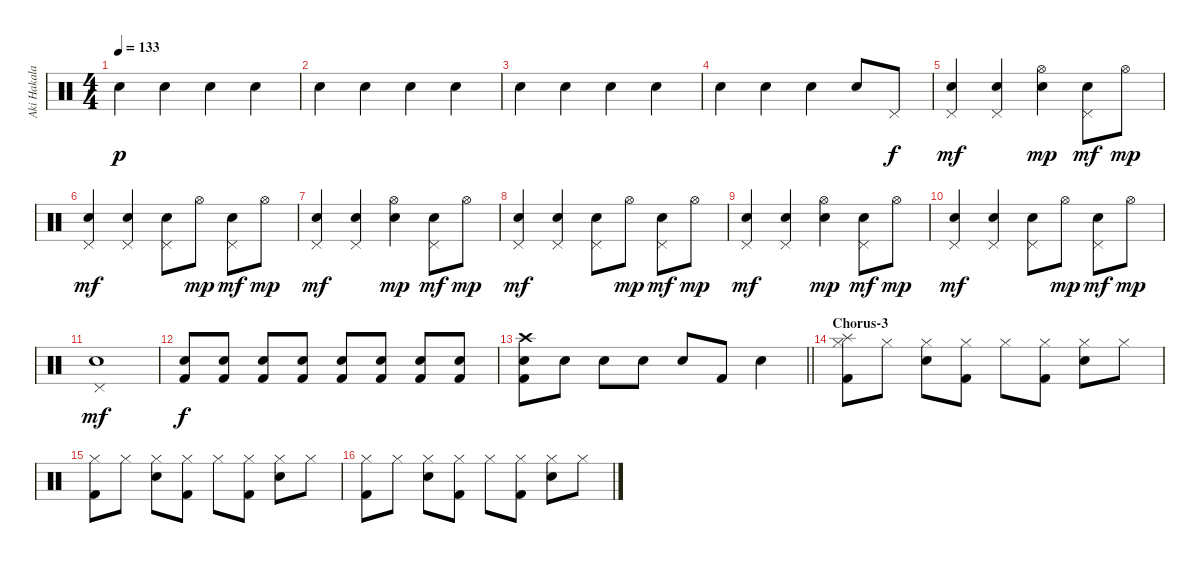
\track ("Aki Hakala - Drums" "Aki Hakala") {instrument percussion}
\staff {score}
\articulation defaults
\ts (4 4)
\tempo 133
\clef neutral
\ks c "Snare (hit) 2".4{dy p} "Snare (hit) 2".4 "Snare (hit) 2".4 "Snare (hit) 2".4
|
"Snare (hit) 2".4 "Snare (hit) 2".4 "Snare (hit) 2".4 "Snare (hit) 2".4 |
"Snare (hit) 2".4 "Snare (hit) 2".4 "Snare (hit) 2".4 "Snare (hit) 2".4 |
"Snare (hit) 2".4 "Snare (hit) 2".4 "Snare (hit) 2".4 "Snare (hit) 2".8 "Pedal Hi-Hat (hit)".8{dy f} |
("Snare (hit) 2" "Pedal Hi-Hat (hit)").4{dy mf} ("Snare (hit) 2" "Pedal Hi-Hat (hit)").4 ("Snare (hit) 2" "Hi-Hat (open)").4{dy mp} ("Snare (hit) 2" "Pedal Hi-Hat (hit)").8{dy mf} "Hi-Hat (open)".8{dy mp} |
("Snare (hit) 2" "Pedal Hi-Hat (hit)").4{dy mf} ("Snare (hit) 2" "Pedal Hi-Hat (hit)").4 ("Snare (hit) 2" "Pedal Hi-Hat (hit)").8 "Hi-Hat (open)".8{dy mp} ("Snare (hit) 2" "Pedal Hi-Hat (hit)").8{dy mf} "Hi-Hat (open)".8{dy mp} |
("Snare (hit) 2" "Pedal Hi-Hat (hit)").4{dy mf} ("Snare (hit) 2" "Pedal Hi-Hat (hit)").4 ("Snare (hit) 2" "Hi-Hat (open)").4{dy mp} ("Snare (hit) 2" "Pedal Hi-Hat (hit)").8{dy mf} "Hi-Hat (open)".8{dy mp} |
("Snare (hit) 2" "Pedal Hi-Hat (hit)").4{dy mf} ("Snare (hit) 2" "Pedal Hi-Hat (hit)").4 ("Snare (hit) 2" "Pedal Hi-Hat (hit)").8 "Hi-Hat (open)".8{dy mp} ("Snare (hit) 2" "Pedal Hi-Hat (hit)").8{dy mf} "Hi-Hat (open)".8{dy mp} |
("Snare (hit) 2" "Pedal Hi-Hat (hit)").4{dy mf} ("Snare (hit) 2" "Pedal Hi-Hat (hit)").4 ("Snare (hit) 2" "Hi-Hat (open)").4{dy mp} ("Snare (hit) 2" "Pedal Hi-Hat (hit)").8{dy mf} "Hi-Hat (open)".8{dy mp} |
("Snare (hit) 2" "Pedal Hi-Hat (hit)").4{dy mf} ("Snare (hit) 2" "Pedal Hi-Hat (hit)").4 ("Snare (hit) 2" "Pedal Hi-Hat (hit)").8 "Hi-Hat (open)".8{dy mp} ("Snare (hit) 2" "Pedal Hi-Hat (hit)").8{dy mf} "Hi-Hat (open)".8{dy mp} |
("Snare (hit) 2" "Pedal Hi-Hat (hit)").1{dy mf} |
("Electric Snare (hit)" "Kick (hit) 2").8{dy f} ("Electric Snare (hit)" "Kick (hit) 2").8 ("Electric Snare (hit)" "Kick (hit) 2").8 ("Electric Snare (hit)" "Kick (hit) 2").8 ("Electric Snare (hit)" "Kick (hit) 2").8 ("Electric Snare (hit)" "Kick (hit) 2").8 ("Electric Snare (hit)" "Kick (hit) 2").8 ("Electric Snare (hit)" "Kick (hit) 2").8 |
\barLineRight lightlight
("Crash high (hit)" "Snare (hit) 2" "Kick (hit) 2").8 "Electric Snare (hit)".8 "Electric Snare (hit)".8 "Electric Snare (hit)".8 "Electric Snare (hit)".8 "Kick (hit) 2".8 "Snare (hit) 2".4 |
\section ("" "Chorus-3")
("Splash (hit)" "Hi-Hat (closed)" "Kick (hit) 2").8 "Hi-Hat (closed)".8 ("Snare (hit) 2" "Hi-Hat (closed)").8 ("Hi-Hat (closed)" "Kick (hit) 2").8 "Hi-Hat (closed)".8 ("Hi-Hat (closed)" "Kick (hit) 2").8 ("Snare (hit) 2" "Hi-Hat (closed)").8 "Hi-Hat (closed)".8 |
("Hi-Hat (closed)" "Kick (hit) 2").8 "Hi-Hat (closed)".8 ("Snare (hit) 2" "Hi-Hat (closed)").8 ("Hi-Hat (closed)" "Kick (hit) 2").8 "Hi-Hat (closed)".8 ("Hi-Hat (closed)" "Kick (hit) 2").8 ("Snare (hit) 2" "Hi-Hat (closed)").8 "Hi-Hat (closed)".8 |
("Hi-Hat (closed)" "Kick (hit) 2").8 "Hi-Hat (closed)".8 ("Snare (hit) 2" "Hi-Hat (closed)").8 ("Hi-Hat (closed)" "Kick (hit) 2").8 "Hi-Hat (closed)".8 ("Hi-Hat (closed)" "Kick (hit) 2").8 ("Snare (hit) 2" "Hi-Hat (closed)").8 "Hi-Hat (closed)".8
